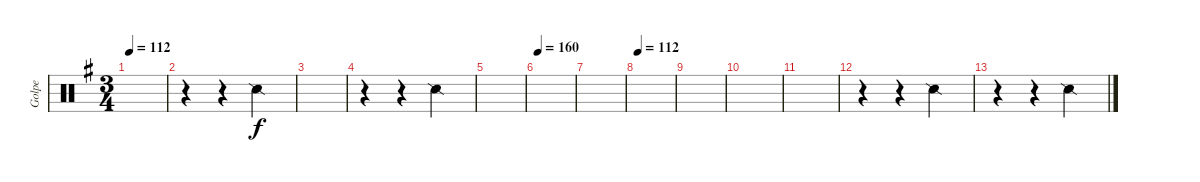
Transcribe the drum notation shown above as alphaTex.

\track ("Golpe" "Golpe") {instrument percussion}
\staff {score}
\articulation defaults
\ts (3 4)
\tempo 112
\clef neutral
\ks g
|
r.4 r.4 "Snare (side stick) 2".4 |
|
r.4 r.4 "Snare (side stick) 2".4 |
|
\tempo 160
|
|
\tempo 112
|
|
|
|
r.4 r.4 "Snare (side stick) 2".4 |
r.4 r.4 "Snare (side stick) 2".4
